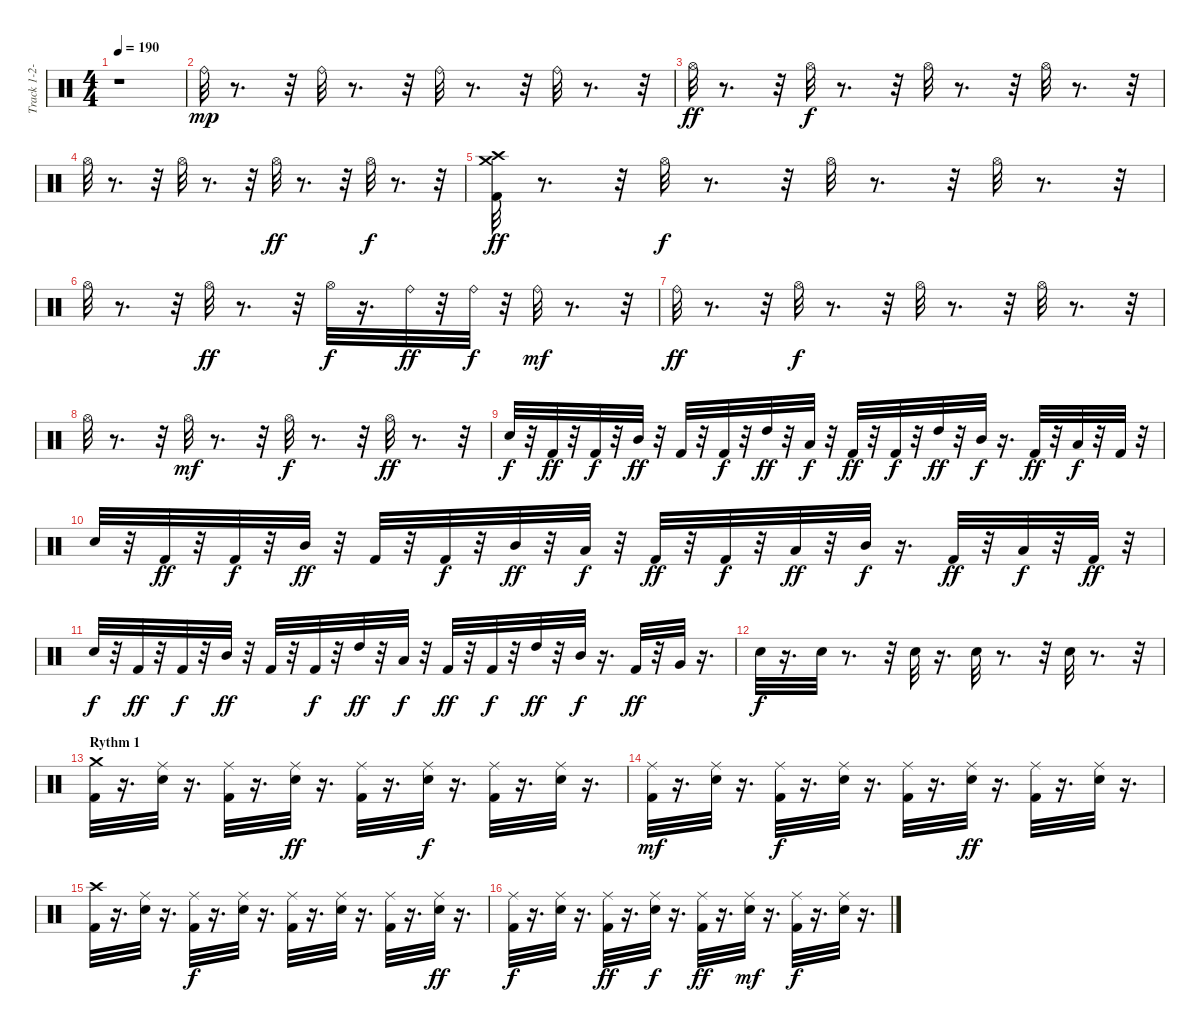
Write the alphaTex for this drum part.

\track ("Track 1-2-3-4-5-6-7-8" "Track 1-2-") {instrument percussion}
\staff {score}
\articulation defaults
\ts (4 4)
\tempo 190
\clef neutral
\ks c
r.1{dy mp} |
"Ride (bell)".32 r.8{d} r.32 "Ride (bell)".32 r.8{d} r.32 "Ride (bell)".32 r.8{d} r.32 "Ride (bell)".32 r.8{d} r.32 |
"Hi-Hat (open)".32{dy ff} r.8{d} r.32 "Hi-Hat (open)".32{dy f} r.8{d} r.32 "Hi-Hat (open)".32 r.8{d} r.32 "Hi-Hat (open)".32 r.8{d} r.32 |
"Hi-Hat (open)".32 r.8{d} r.32 "Hi-Hat (open)".32 r.8{d} r.32 "Hi-Hat (open)".32{dy ff} r.8{d} r.32 "Hi-Hat (open)".32{dy f} r.8{d} r.32 |
("Crash high (hit)" "Crash medium (hit)" "Kick (hit) 2").32{dy ff} r.8{d} r.32 "Hi-Hat (open)".32{dy f} r.8{d} r.32 "Hi-Hat (open)".32 r.8{d} r.32 "Hi-Hat (open)".32 r.8{d} r.32 |
"Hi-Hat (open)".32 r.8{d} r.32 "Hi-Hat (open)".32{dy ff} r.8{d} r.32 "Hi-Hat (open)".32{dy f} r.16{d} "Ride (bell)".32{dy ff} r.32 "Ride (bell)".32{dy f} r.32 "Ride (bell)".32{dy mf} r.8{d} r.32 |
"Ride (bell)".32{dy ff} r.8{d} r.32 "Hi-Hat (open)".32{dy f} r.8{d} r.32 "Hi-Hat (open)".32 r.8{d} r.32 "Hi-Hat (open)".32 r.8{d} r.32 |
"Hi-Hat (open)".32 r.8{d} r.32 "Hi-Hat (open)".32{dy mf} r.8{d} r.32 "Hi-Hat (open)".32{dy f} r.8{d} r.32 "Hi-Hat (open)".32{dy ff} r.8{d} r.32 |
"Electric Snare (hit)".32{dy f} r.32 "Kick (hit) 2".32{dy ff} r.32 "Kick (hit) 2".32{dy f} r.32 "Mid Tom (hit)".32{dy ff} r.32 "Kick (hit) 2".32 r.32 "Kick (hit) 2".32{dy f} r.32 "High Tom (hit)".32{dy ff} r.32 "Low Tom (hit)".32{dy f} r.32 "Kick (hit) 2".32{dy ff} r.32 "Kick (hit) 2".32{dy f} r.32 "High Tom (hit)".32{dy ff} r.32 "Mid Tom (hit)".32{dy f} r.16{d} "Kick (hit) 2".32{dy ff} r.32 "Low Tom (hit)".32{dy f} r.32 "Kick (hit) 2".32 r.32 |
"Electric Snare (hit)".32 r.32 "Kick (hit) 2".32{dy ff} r.32 "Kick (hit) 2".32{dy f} r.32 "Mid Tom (hit)".32{dy ff} r.32 "Kick (hit) 2".32 r.32 "Kick (hit) 2".32{dy f} r.32 "Mid Tom (hit)".32{dy ff} r.32 "Low Tom (hit)".32{dy f} r.32 "Kick (hit) 2".32{dy ff} r.32 "Kick (hit) 2".32{dy f} r.32 "Low Tom (hit)".32{dy ff} r.32 "Mid Tom (hit)".32{dy f} r.16{d} "Kick (hit) 2".32{dy ff} r.32 "Low Tom (hit)".32{dy f} r.32 "Kick (hit) 2".32{dy ff} r.32 |
"Electric Snare (hit)".32{dy f} r.32 "Kick (hit) 2".32{dy ff} r.32 "Kick (hit) 2".32{dy f} r.32 "Mid Tom (hit)".32{dy ff} r.32 "Kick (hit) 2".32 r.32 "Kick (hit) 2".32{dy f} r.32 "High Tom (hit)".32{dy ff} r.32 "Low Tom (hit)".32{dy f} r.32 "Kick (hit) 2".32{dy ff} r.32 "Kick (hit) 2".32{dy f} r.32 "High Tom (hit)".32{dy ff} r.32 "Mid Tom (hit)".32{dy f} r.16{d} "Kick (hit) 2".32{dy ff} r.32 "Very Low Tom (hit)".32 r.16{d} |
"Electric Snare (hit)".32{dy f} r.16{d} "Electric Snare (hit)".32 r.8{d} r.32 "Electric Snare (hit)".32 r.16{d} "Electric Snare (hit)".32 r.8{d} r.32 "Electric Snare (hit)".32 r.8{d} r.32 |
\section ("" "Rythm 1")
("Crash medium (hit)" "Kick (hit) 2").32 r.16{d} ("Ride (middle)" "Electric Snare (hit)").32 r.16{d} ("Ride (middle)" "Kick (hit) 2").32 r.16{d} ("Ride (middle)" "Electric Snare (hit)").32{dy ff} r.16{d} ("Ride (middle)" "Kick (hit) 2").32 r.16{d} ("Ride (middle)" "Electric Snare (hit)").32{dy f} r.16{d} ("Ride (middle)" "Kick (hit) 2").32 r.16{d} ("Ride (middle)" "Electric Snare (hit)").32 r.16{d} |
("Ride (middle)" "Kick (hit) 2").32{dy mf} r.16{d} ("Ride (middle)" "Electric Snare (hit)").32 r.16{d} ("Ride (middle)" "Kick (hit) 2").32{dy f} r.16{d} ("Ride (middle)" "Electric Snare (hit)").32 r.16{d} ("Ride (middle)" "Kick (hit) 2").32 r.16{d} ("Ride (middle)" "Electric Snare (hit)").32{dy ff} r.16{d} ("Ride (middle)" "Kick (hit) 2").32 r.16{d} ("Ride (middle)" "Electric Snare (hit)").32 r.16{d} |
("Crash high (hit)" "Kick (hit) 2").32 r.16{d} ("Ride (middle)" "Electric Snare (hit)").32 r.16{d} ("Ride (middle)" "Kick (hit) 2").32{dy f} r.16{d} ("Ride (middle)" "Electric Snare (hit)").32 r.16{d} ("Ride (middle)" "Kick (hit) 2").32 r.16{d} ("Ride (middle)" "Electric Snare (hit)").32 r.16{d} ("Ride (middle)" "Kick (hit) 2").32 r.16{d} ("Ride (middle)" "Electric Snare (hit)").32{dy ff} r.16{d} |
("Ride (middle)" "Kick (hit) 2").32{dy f} r.16{d} ("Ride (middle)" "Electric Snare (hit)").32 r.16{d} ("Ride (middle)" "Kick (hit) 2").32{dy ff} r.16{d} ("Ride (middle)" "Electric Snare (hit)").32{dy f} r.16{d} ("Ride (middle)" "Kick (hit) 2").32{dy ff} r.16{d} ("Ride (middle)" "Electric Snare (hit)").32{dy mf} r.16{d} ("Ride (middle)" "Kick (hit) 2").32{dy f} r.16{d} ("Ride (middle)" "Electric Snare (hit)").32 r.16{d}
